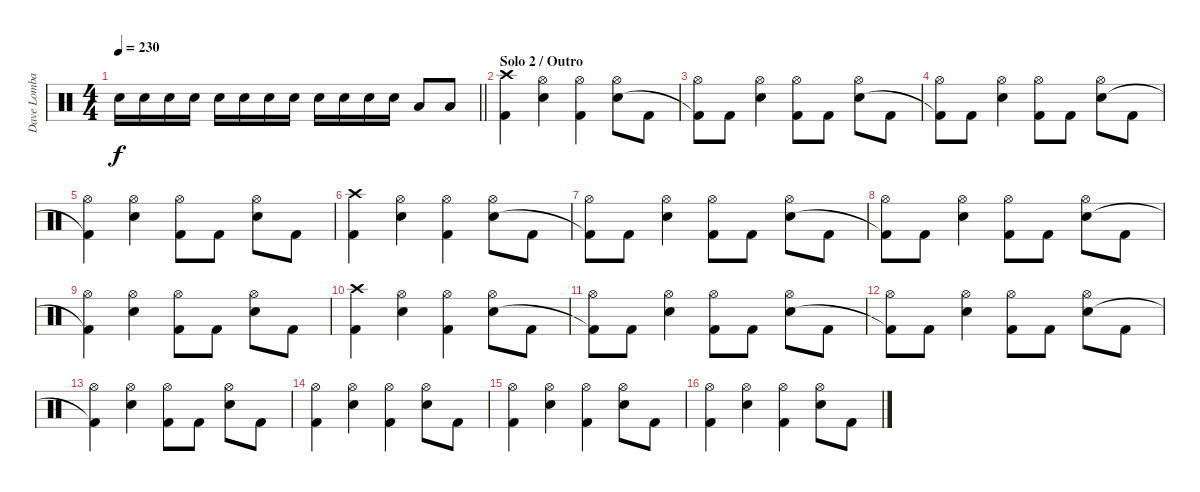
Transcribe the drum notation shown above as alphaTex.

\track ("Dave Lombardo" "Dave Lomba") {instrument percussion}
\staff {score}
\articulation defaults
\ts (4 4)
\tempo 230
\clef neutral
\barLineRight lightlight
\ks c "Snare (hit) 2".16{dy f} "Snare (hit) 2".16 "Snare (hit) 2".16 "Snare (hit) 2".16 "Snare (hit) 2".16 "Snare (hit) 2".16 "Snare (hit) 2".16 "Snare (hit) 2".16 "Snare (hit) 2".16 "Snare (hit) 2".16 "Snare (hit) 2".16 "Snare (hit) 2".16 "Low Tom (hit)".8 "Low Tom (hit)".8
|
\section ("" "Solo 2 / Outro")
("Crash high (hit)" "Kick (hit) 2").4 ("Hi-Hat (open)" "Snare (hit) 2").4 ("Hi-Hat (open)" "Kick (hit) 2").4 ("Hi-Hat (open)" "Snare (hit) 2").8 "Kick (hit) 2".8 |
("Hi-Hat (open)" "Kick (hit) 2"{t}).8 "Kick (hit) 2".8 ("Hi-Hat (open)" "Snare (hit) 2").4 ("Hi-Hat (open)" "Kick (hit) 2").8 "Kick (hit) 2".8 ("Hi-Hat (open)" "Snare (hit) 2").8 "Kick (hit) 2".8 |
("Hi-Hat (open)" "Kick (hit) 2"{t}).8 "Kick (hit) 2".8 ("Hi-Hat (open)" "Snare (hit) 2").4 ("Hi-Hat (open)" "Kick (hit) 2").8 "Kick (hit) 2".8 ("Hi-Hat (open)" "Snare (hit) 2").8 "Kick (hit) 2".8 |
("Hi-Hat (open)" "Kick (hit) 2"{t}).4 ("Hi-Hat (open)" "Snare (hit) 2").4 ("Hi-Hat (open)" "Kick (hit) 2").8 "Kick (hit) 2".8 ("Hi-Hat (open)" "Snare (hit) 2").8 "Kick (hit) 2".8 |
("Crash high (hit)" "Kick (hit) 2").4 ("Hi-Hat (open)" "Snare (hit) 2").4 ("Hi-Hat (open)" "Kick (hit) 2").4 ("Hi-Hat (open)" "Snare (hit) 2").8 "Kick (hit) 2".8 |
("Hi-Hat (open)" "Kick (hit) 2"{t}).8 "Kick (hit) 2".8 ("Hi-Hat (open)" "Snare (hit) 2").4 ("Hi-Hat (open)" "Kick (hit) 2").8 "Kick (hit) 2".8 ("Hi-Hat (open)" "Snare (hit) 2").8 "Kick (hit) 2".8 |
("Hi-Hat (open)" "Kick (hit) 2"{t}).8 "Kick (hit) 2".8 ("Hi-Hat (open)" "Snare (hit) 2").4 ("Hi-Hat (open)" "Kick (hit) 2").8 "Kick (hit) 2".8 ("Hi-Hat (open)" "Snare (hit) 2").8 "Kick (hit) 2".8 |
("Hi-Hat (open)" "Kick (hit) 2"{t}).4 ("Hi-Hat (open)" "Snare (hit) 2").4 ("Hi-Hat (open)" "Kick (hit) 2").8 "Kick (hit) 2".8 ("Hi-Hat (open)" "Snare (hit) 2").8 "Kick (hit) 2".8 |
("Crash high (hit)" "Kick (hit) 2").4 ("Hi-Hat (open)" "Snare (hit) 2").4 ("Hi-Hat (open)" "Kick (hit) 2").4 ("Hi-Hat (open)" "Snare (hit) 2").8 "Kick (hit) 2".8 |
("Hi-Hat (open)" "Kick (hit) 2"{t}).8 "Kick (hit) 2".8 ("Hi-Hat (open)" "Snare (hit) 2").4 ("Hi-Hat (open)" "Kick (hit) 2").8 "Kick (hit) 2".8 ("Hi-Hat (open)" "Snare (hit) 2").8 "Kick (hit) 2".8 |
("Hi-Hat (open)" "Kick (hit) 2"{t}).8 "Kick (hit) 2".8 ("Hi-Hat (open)" "Snare (hit) 2").4 ("Hi-Hat (open)" "Kick (hit) 2").8 "Kick (hit) 2".8 ("Hi-Hat (open)" "Snare (hit) 2").8 "Kick (hit) 2".8 |
("Hi-Hat (open)" "Kick (hit) 2"{t}).4 ("Hi-Hat (open)" "Snare (hit) 2").4 ("Hi-Hat (open)" "Kick (hit) 2").8 "Kick (hit) 2".8 ("Hi-Hat (open)" "Snare (hit) 2").8 "Kick (hit) 2".8 |
("Hi-Hat (open)" "Kick (hit) 2").4 ("Hi-Hat (open)" "Snare (hit) 2").4 ("Hi-Hat (open)" "Kick (hit) 2").4 ("Hi-Hat (open)" "Snare (hit) 2").8 "Kick (hit) 2".8 |
("Hi-Hat (open)" "Kick (hit) 2").4 ("Hi-Hat (open)" "Snare (hit) 2").4 ("Hi-Hat (open)" "Kick (hit) 2").4 ("Hi-Hat (open)" "Snare (hit) 2").8 "Kick (hit) 2".8 |
("Hi-Hat (open)" "Kick (hit) 2").4 ("Hi-Hat (open)" "Snare (hit) 2").4 ("Hi-Hat (open)" "Kick (hit) 2").4 ("Hi-Hat (open)" "Snare (hit) 2").8 "Kick (hit) 2".8
